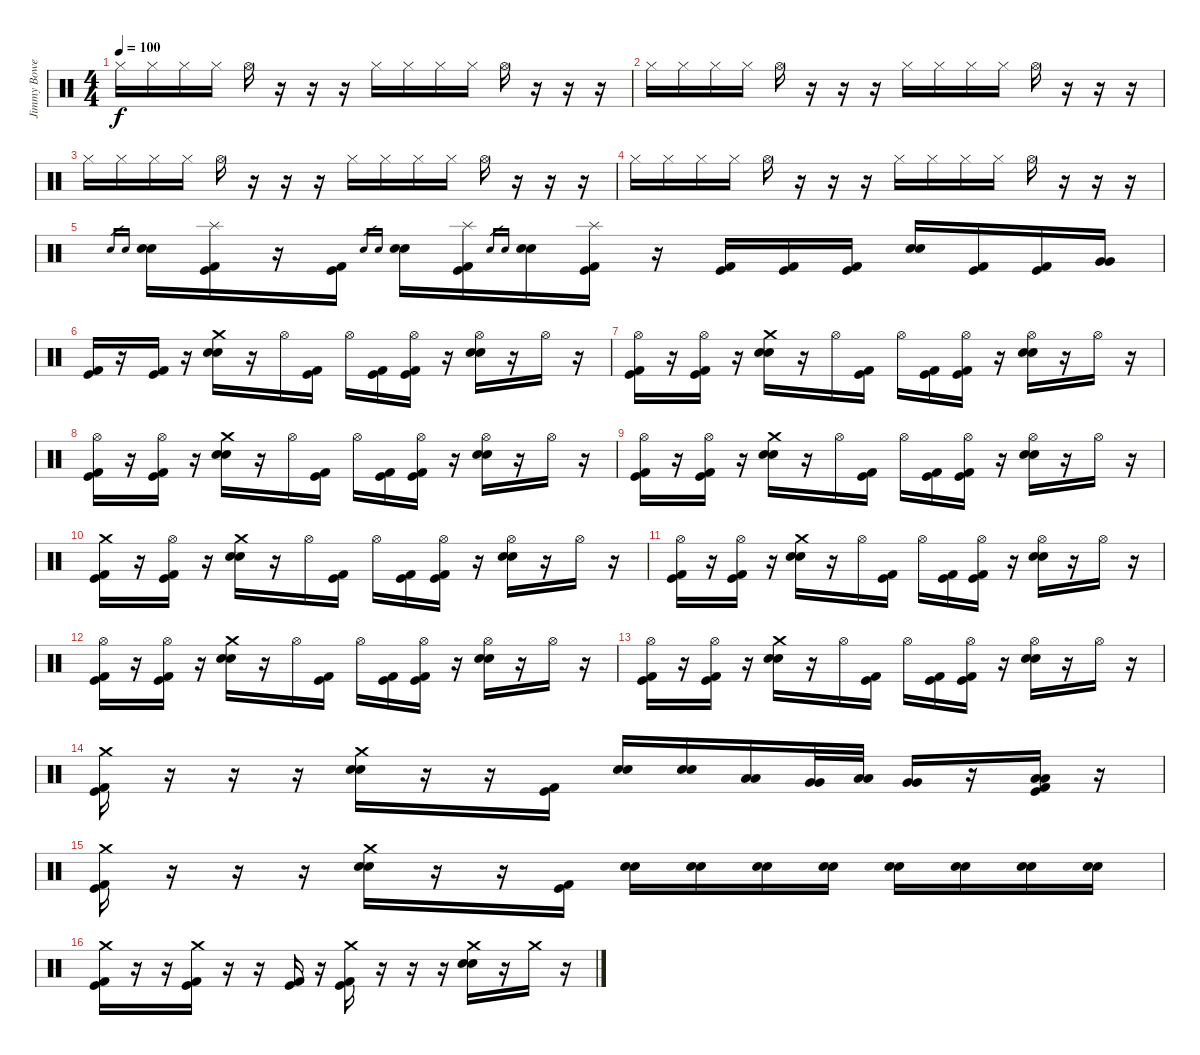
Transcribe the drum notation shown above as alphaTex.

\track ("Jimmy Bower" "Jimmy Bowe") {instrument percussion}
\staff {score}
\articulation defaults
\ts (4 4)
\tempo 100
\clef neutral
\ks c "Hi-Hat (closed)".16{dy f} "Hi-Hat (closed)".16 "Hi-Hat (closed)".16 "Hi-Hat (closed)".16 "Hi-Hat (open)".16
r.16 r.16 r.16 "Hi-Hat (closed)".16 "Hi-Hat (closed)".16 "Hi-Hat (closed)".16 "Hi-Hat (closed)".16 "Hi-Hat (open)".16 r.16 r.16 r.16 |
"Hi-Hat (closed)".16 "Hi-Hat (closed)".16 "Hi-Hat (closed)".16 "Hi-Hat (closed)".16 "Hi-Hat (open)".16 r.16 r.16 r.16 "Hi-Hat (closed)".16 "Hi-Hat (closed)".16 "Hi-Hat (closed)".16 "Hi-Hat (closed)".16 "Hi-Hat (open)".16 r.16 r.16 r.16 |
"Hi-Hat (closed)".16 "Hi-Hat (closed)".16 "Hi-Hat (closed)".16 "Hi-Hat (closed)".16 "Hi-Hat (open)".16 r.16 r.16 r.16 "Hi-Hat (closed)".16 "Hi-Hat (closed)".16 "Hi-Hat (closed)".16 "Hi-Hat (closed)".16 "Hi-Hat (open)".16 r.16 r.16 r.16 |
"Hi-Hat (closed)".16 "Hi-Hat (closed)".16 "Hi-Hat (closed)".16 "Hi-Hat (closed)".16 "Hi-Hat (open)".16 r.16 r.16 r.16 "Hi-Hat (closed)".16 "Hi-Hat (closed)".16 "Hi-Hat (closed)".16 "Hi-Hat (closed)".16 "Hi-Hat (open)".16 r.16 r.16 r.16 |
"Electric Snare (hit)".16{gr} "Electric Snare (hit)".16{gr} ("Electric Snare (hit)" "Electric Snare (hit)").16 ("Splash (hit)" "Kick (hit) 2" "Kick (hit)").16 r.16 ("Kick (hit)" "Kick (hit) 2").16 "Electric Snare (hit)".16{gr} "Electric Snare (hit)".16{gr} ("Electric Snare (hit)" "Electric Snare (hit)").16 ("Splash (hit)" "Kick (hit) 2" "Kick (hit)").16 "Electric Snare (hit)".16{gr} "Electric Snare (hit)".16{gr} ("Electric Snare (hit)" "Electric Snare (hit)").16 ("Splash (hit)" "Kick (hit) 2" "Kick (hit)").16 r.16 ("Kick (hit) 2" "Kick (hit)").16 ("Kick (hit) 2" "Kick (hit)").16 ("Kick (hit) 2" "Kick (hit)").16 ("Electric Snare (hit)" "Electric Snare (hit)").16 ("Kick (hit) 2" "Kick (hit)").16 ("Kick (hit) 2" "Kick (hit)").16 ("Very Low Tom (hit)" "Very Low Tom (hit)").16 |
("Kick (hit) 2" "Kick (hit)").16 r.16 ("Kick (hit)" "Kick (hit) 2").16 r.16 ("Crash medium (hit)" "Electric Snare (hit)" "Electric Snare (hit)").16 r.16 "Hi-Hat (open)".16 ("Kick (hit) 2" "Kick (hit)").16 "Hi-Hat (open)".16 ("Kick (hit)" "Kick (hit) 2").16 ("Hi-Hat (open)" "Kick (hit)" "Kick (hit) 2").16 r.16 ("Hi-Hat (open)" "Electric Snare (hit)" "Electric Snare (hit)").16 r.16 "Hi-Hat (open)".16 r.16 |
("Hi-Hat (open)" "Kick (hit) 2" "Kick (hit)").16 r.16 ("Hi-Hat (open)" "Kick (hit)" "Kick (hit) 2").16 r.16 ("Crash medium (hit)" "Electric Snare (hit)" "Electric Snare (hit)").16 r.16 "Hi-Hat (open)".16 ("Kick (hit) 2" "Kick (hit)").16 "Hi-Hat (open)".16 ("Kick (hit)" "Kick (hit) 2").16 ("Hi-Hat (open)" "Kick (hit)" "Kick (hit) 2").16 r.16 ("Hi-Hat (open)" "Electric Snare (hit)" "Electric Snare (hit)").16 r.16 "Hi-Hat (open)".16 r.16 |
("Hi-Hat (open)" "Kick (hit) 2" "Kick (hit)").16 r.16 ("Hi-Hat (open)" "Kick (hit)" "Kick (hit) 2").16 r.16 ("Crash medium (hit)" "Electric Snare (hit)" "Electric Snare (hit)").16 r.16 "Hi-Hat (open)".16 ("Kick (hit) 2" "Kick (hit)").16 "Hi-Hat (open)".16 ("Kick (hit)" "Kick (hit) 2").16 ("Hi-Hat (open)" "Kick (hit)" "Kick (hit) 2").16 r.16 ("Hi-Hat (open)" "Electric Snare (hit)" "Electric Snare (hit)").16 r.16 "Hi-Hat (open)".16 r.16 |
("Hi-Hat (open)" "Kick (hit) 2" "Kick (hit)").16 r.16 ("Hi-Hat (open)" "Kick (hit)" "Kick (hit) 2").16 r.16 ("Crash medium (hit)" "Electric Snare (hit)" "Electric Snare (hit)").16 r.16 "Hi-Hat (open)".16 ("Kick (hit) 2" "Kick (hit)").16 "Hi-Hat (open)".16 ("Kick (hit)" "Kick (hit) 2").16 ("Hi-Hat (open)" "Kick (hit)" "Kick (hit) 2").16 r.16 ("Hi-Hat (open)" "Electric Snare (hit)" "Electric Snare (hit)").16 r.16 "Hi-Hat (open)".16 r.16 |
("Crash medium (hit)" "Kick (hit) 2" "Kick (hit)").16 r.16 ("Hi-Hat (open)" "Kick (hit)" "Kick (hit) 2").16 r.16 ("Crash medium (hit)" "Electric Snare (hit)" "Electric Snare (hit)").16 r.16 "Hi-Hat (open)".16 ("Kick (hit) 2" "Kick (hit)").16 "Hi-Hat (open)".16 ("Kick (hit)" "Kick (hit) 2").16 ("Hi-Hat (open)" "Kick (hit)" "Kick (hit) 2").16 r.16 ("Hi-Hat (open)" "Electric Snare (hit)" "Electric Snare (hit)").16 r.16 "Hi-Hat (open)".16 r.16 |
("Hi-Hat (open)" "Kick (hit) 2" "Kick (hit)").16 r.16 ("Hi-Hat (open)" "Kick (hit)" "Kick (hit) 2").16 r.16 ("Crash medium (hit)" "Electric Snare (hit)" "Electric Snare (hit)").16 r.16 "Hi-Hat (open)".16 ("Kick (hit) 2" "Kick (hit)").16 "Hi-Hat (open)".16 ("Kick (hit)" "Kick (hit) 2").16 ("Hi-Hat (open)" "Kick (hit)" "Kick (hit) 2").16 r.16 ("Hi-Hat (open)" "Electric Snare (hit)" "Electric Snare (hit)").16 r.16 "Hi-Hat (open)".16 r.16 |
("Hi-Hat (open)" "Kick (hit) 2" "Kick (hit)").16 r.16 ("Hi-Hat (open)" "Kick (hit)" "Kick (hit) 2").16 r.16 ("Crash medium (hit)" "Electric Snare (hit)" "Electric Snare (hit)").16 r.16 "Hi-Hat (open)".16 ("Kick (hit) 2" "Kick (hit)").16 "Hi-Hat (open)".16 ("Kick (hit)" "Kick (hit) 2").16 ("Hi-Hat (open)" "Kick (hit)" "Kick (hit) 2").16 r.16 ("Hi-Hat (open)" "Electric Snare (hit)" "Electric Snare (hit)").16 r.16 "Hi-Hat (open)".16 r.16 |
("Hi-Hat (open)" "Kick (hit) 2" "Kick (hit)").16 r.16 ("Hi-Hat (open)" "Kick (hit)" "Kick (hit) 2").16 r.16 ("Crash medium (hit)" "Electric Snare (hit)" "Electric Snare (hit)").16 r.16 "Hi-Hat (open)".16 ("Kick (hit) 2" "Kick (hit)").16 "Hi-Hat (open)".16 ("Kick (hit)" "Kick (hit) 2").16 ("Hi-Hat (open)" "Kick (hit)" "Kick (hit) 2").16 r.16 ("Hi-Hat (open)" "Electric Snare (hit)" "Electric Snare (hit)").16 r.16 "Hi-Hat (open)".16 r.16 |
("Crash medium (hit)" "Kick (hit) 2" "Kick (hit)").16 r.16 r.16 r.16 ("Crash medium (hit)" "Electric Snare (hit)" "Electric Snare (hit)").16 r.16 r.16 ("Kick (hit) 2" "Kick (hit)").16 ("Electric Snare (hit)" "Electric Snare (hit)").16 ("Electric Snare (hit)" "Electric Snare (hit)").16 ("Low Tom (hit)" "Low Tom (hit)").16 ("Very Low Tom (hit)" "Very Low Tom (hit)").32 ("Low Tom (hit)" "Low Tom (hit)").32 ("Very Low Tom (hit)" "Very Low Tom (hit)").16 r.16 ("Low Floor Tom (hit)" "Low Floor Tom (hit)" "Kick (hit) 2" "Kick (hit)").16 r.16 |
("Crash medium (hit)" "Kick (hit) 2" "Kick (hit)").16 r.16 r.16 r.16 ("Crash medium (hit)" "Electric Snare (hit)" "Electric Snare (hit)").16 r.16 r.16 ("Kick (hit) 2" "Kick (hit)").16 ("Electric Snare (hit)" "Electric Snare (hit)").16 ("Electric Snare (hit)" "Electric Snare (hit)").16 ("Electric Snare (hit)" "Electric Snare (hit)").16 ("Electric Snare (hit)" "Electric Snare (hit)").16 ("Electric Snare (hit)" "Electric Snare (hit)").16 ("Electric Snare (hit)" "Electric Snare (hit)").16 ("Electric Snare (hit)" "Electric Snare (hit)").16 ("Electric Snare (hit)" "Electric Snare (hit)").16 |
("Crash medium (hit)" "Kick (hit) 2" "Kick (hit)").16 r.16 r.16 ("Crash medium (hit)" "Kick (hit)" "Kick (hit) 2").16 r.16 r.16 ("Kick (hit) 2" "Kick (hit)").16 r.16 ("Crash medium (hit)" "Kick (hit)" "Kick (hit) 2").16 r.16 r.16 r.16 ("Crash medium (hit)" "Electric Snare (hit)" "Electric Snare (hit)").16 r.16 "Crash medium (hit)".16 r.16
